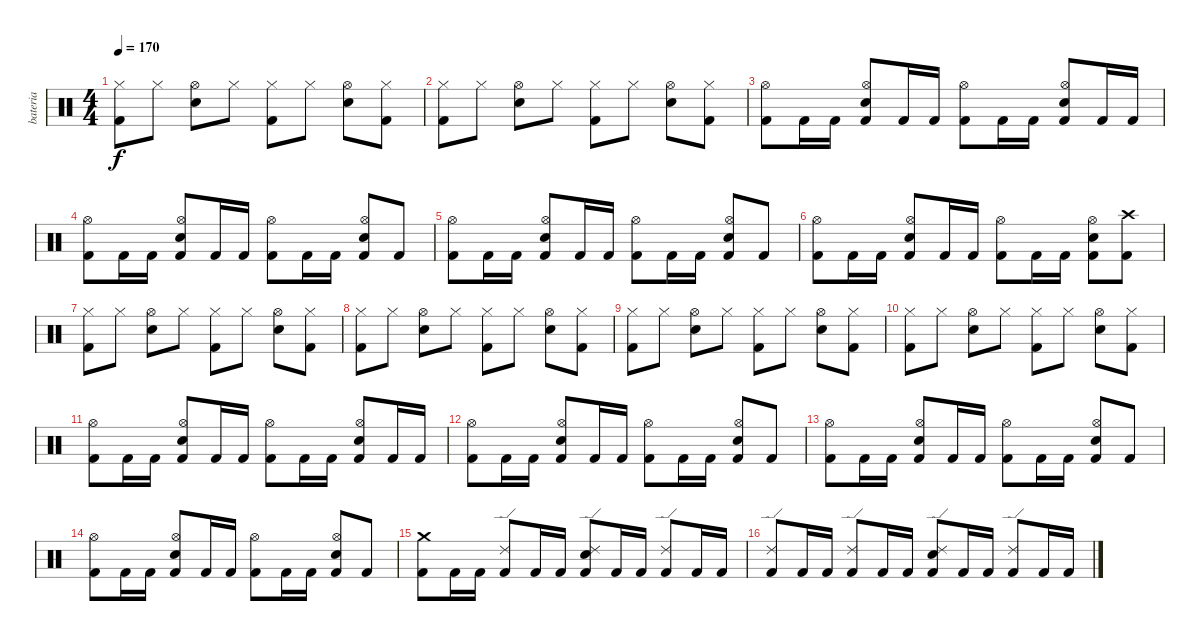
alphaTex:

\track ("bateria" "bateria") {instrument percussion}
\staff {score}
\articulation defaults
\ts (4 4)
\tempo 170
\clef neutral
\ks c
("Hi-Hat (closed)" "Kick (hit) 2").8{dy f} "Hi-Hat (closed)".8 ("Hi-Hat (open)" "Snare (hit) 2").8 "Hi-Hat (closed)".8 ("Hi-Hat (closed)" "Kick (hit) 2").8 "Hi-Hat (closed)".8 ("Hi-Hat (open)" "Snare (hit) 2").8 ("Hi-Hat (closed)" "Kick (hit) 2").8 |
("Hi-Hat (closed)" "Kick (hit) 2").8 "Hi-Hat (closed)".8 ("Hi-Hat (open)" "Snare (hit) 2").8 "Hi-Hat (closed)".8 ("Hi-Hat (closed)" "Kick (hit) 2").8 "Hi-Hat (closed)".8 ("Hi-Hat (open)" "Snare (hit) 2").8 ("Hi-Hat (closed)" "Kick (hit) 2").8 |
("Hi-Hat (open)" "Kick (hit) 2").8 "Kick (hit) 2".16 "Kick (hit) 2".16 ("Hi-Hat (open)" "Snare (hit) 2" "Kick (hit) 2").8 "Kick (hit) 2".16 "Kick (hit) 2".16 ("Hi-Hat (open)" "Kick (hit) 2").8 "Kick (hit) 2".16 "Kick (hit) 2".16 ("Hi-Hat (open)" "Snare (hit) 2" "Kick (hit) 2").8 "Kick (hit) 2".16 "Kick (hit) 2".16 |
("Hi-Hat (open)" "Kick (hit) 2").8 "Kick (hit) 2".16 "Kick (hit) 2".16 ("Hi-Hat (open)" "Snare (hit) 2" "Kick (hit) 2").8 "Kick (hit) 2".16 "Kick (hit) 2".16 ("Hi-Hat (open)" "Kick (hit) 2").8 "Kick (hit) 2".16 "Kick (hit) 2".16 ("Hi-Hat (open)" "Snare (hit) 2" "Kick (hit) 2").8 "Kick (hit) 2".8 |
("Hi-Hat (open)" "Kick (hit) 2").8 "Kick (hit) 2".16 "Kick (hit) 2".16 ("Hi-Hat (open)" "Snare (hit) 2" "Kick (hit) 2").8 "Kick (hit) 2".16 "Kick (hit) 2".16 ("Hi-Hat (open)" "Kick (hit) 2").8 "Kick (hit) 2".16 "Kick (hit) 2".16 ("Hi-Hat (open)" "Snare (hit) 2" "Kick (hit) 2").8 "Kick (hit) 2".8 |
("Hi-Hat (open)" "Kick (hit) 2").8 "Kick (hit) 2".16 "Kick (hit) 2".16 ("Hi-Hat (open)" "Snare (hit) 2" "Kick (hit) 2").8 "Kick (hit) 2".16 "Kick (hit) 2".16 ("Hi-Hat (open)" "Kick (hit) 2").8 "Kick (hit) 2".16 "Kick (hit) 2".16 ("Hi-Hat (open)" "Snare (hit) 2" "Kick (hit) 2").8 ("Crash high (hit)" "Kick (hit) 2").8 |
("Hi-Hat (closed)" "Kick (hit) 2").8 "Hi-Hat (closed)".8 ("Hi-Hat (open)" "Snare (hit) 2").8 "Hi-Hat (closed)".8 ("Hi-Hat (closed)" "Kick (hit) 2").8 "Hi-Hat (closed)".8 ("Hi-Hat (open)" "Snare (hit) 2").8 ("Hi-Hat (closed)" "Kick (hit) 2").8 |
("Hi-Hat (closed)" "Kick (hit) 2").8 "Hi-Hat (closed)".8 ("Hi-Hat (open)" "Snare (hit) 2").8 "Hi-Hat (closed)".8 ("Hi-Hat (closed)" "Kick (hit) 2").8 "Hi-Hat (closed)".8 ("Hi-Hat (open)" "Snare (hit) 2").8 ("Hi-Hat (closed)" "Kick (hit) 2").8 |
("Hi-Hat (closed)" "Kick (hit) 2").8 "Hi-Hat (closed)".8 ("Hi-Hat (open)" "Snare (hit) 2").8 "Hi-Hat (closed)".8 ("Hi-Hat (closed)" "Kick (hit) 2").8 "Hi-Hat (closed)".8 ("Hi-Hat (open)" "Snare (hit) 2").8 ("Hi-Hat (closed)" "Kick (hit) 2").8 |
("Hi-Hat (closed)" "Kick (hit) 2").8 "Hi-Hat (closed)".8 ("Hi-Hat (open)" "Snare (hit) 2").8 "Hi-Hat (closed)".8 ("Hi-Hat (closed)" "Kick (hit) 2").8 "Hi-Hat (closed)".8 ("Hi-Hat (open)" "Snare (hit) 2").8 ("Hi-Hat (closed)" "Kick (hit) 2").8 |
("Hi-Hat (open)" "Kick (hit) 2").8 "Kick (hit) 2".16 "Kick (hit) 2".16 ("Hi-Hat (open)" "Snare (hit) 2" "Kick (hit) 2").8 "Kick (hit) 2".16 "Kick (hit) 2".16 ("Hi-Hat (open)" "Kick (hit) 2").8 "Kick (hit) 2".16 "Kick (hit) 2".16 ("Hi-Hat (open)" "Snare (hit) 2" "Kick (hit) 2").8 "Kick (hit) 2".16 "Kick (hit) 2".16 |
("Hi-Hat (open)" "Kick (hit) 2").8 "Kick (hit) 2".16 "Kick (hit) 2".16 ("Hi-Hat (open)" "Snare (hit) 2" "Kick (hit) 2").8 "Kick (hit) 2".16 "Kick (hit) 2".16 ("Hi-Hat (open)" "Kick (hit) 2").8 "Kick (hit) 2".16 "Kick (hit) 2".16 ("Hi-Hat (open)" "Snare (hit) 2" "Kick (hit) 2").8 "Kick (hit) 2".8 |
("Hi-Hat (open)" "Kick (hit) 2").8 "Kick (hit) 2".16 "Kick (hit) 2".16 ("Hi-Hat (open)" "Snare (hit) 2" "Kick (hit) 2").8 "Kick (hit) 2".16 "Kick (hit) 2".16 ("Hi-Hat (open)" "Kick (hit) 2").8 "Kick (hit) 2".16 "Kick (hit) 2".16 ("Hi-Hat (open)" "Snare (hit) 2" "Kick (hit) 2").8 "Kick (hit) 2".8 |
("Hi-Hat (open)" "Kick (hit) 2").8 "Kick (hit) 2".16 "Kick (hit) 2".16 ("Hi-Hat (open)" "Snare (hit) 2" "Kick (hit) 2").8 "Kick (hit) 2".16 "Kick (hit) 2".16 ("Hi-Hat (open)" "Kick (hit) 2").8 "Kick (hit) 2".16 "Kick (hit) 2".16 ("Hi-Hat (open)" "Snare (hit) 2" "Kick (hit) 2").8 "Kick (hit) 2".8 |
("Crash medium (hit)" "Kick (hit) 2").8 "Kick (hit) 2".16 "Kick (hit) 2".16 ("Ride (edge) 2" "Kick (hit) 2").8 "Kick (hit) 2".16 "Kick (hit) 2".16 ("Ride (edge) 2" "Snare (hit) 2" "Kick (hit) 2").8 "Kick (hit) 2".16 "Kick (hit) 2".16 ("Ride (edge) 2" "Kick (hit) 2").8 "Kick (hit) 2".16 "Kick (hit) 2".16 |
("Ride (edge) 2" "Kick (hit) 2").8 "Kick (hit) 2".16 "Kick (hit) 2".16 ("Ride (edge) 2" "Kick (hit) 2").8 "Kick (hit) 2".16 "Kick (hit) 2".16 ("Ride (edge) 2" "Snare (hit) 2" "Kick (hit) 2").8 "Kick (hit) 2".16 "Kick (hit) 2".16 ("Ride (edge) 2" "Kick (hit) 2").8 "Kick (hit) 2".16 "Kick (hit) 2".16
